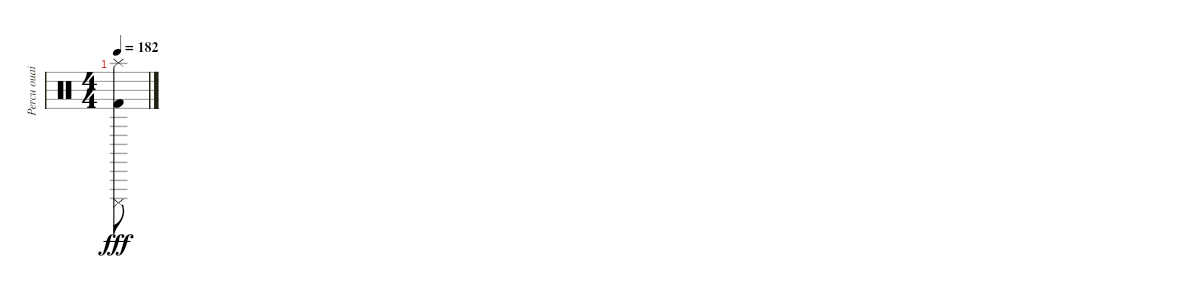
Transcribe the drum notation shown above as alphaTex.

\track ("Percu ouaih !" "Percu ouai") {instrument percussion}
\staff {score}
\articulation defaults
\ts (4 4)
\tempo 182
\clef neutral
\ks c
("Splash (hit)" "Cuica (mute)" "Kick (hit) 2").8{dy fff}
